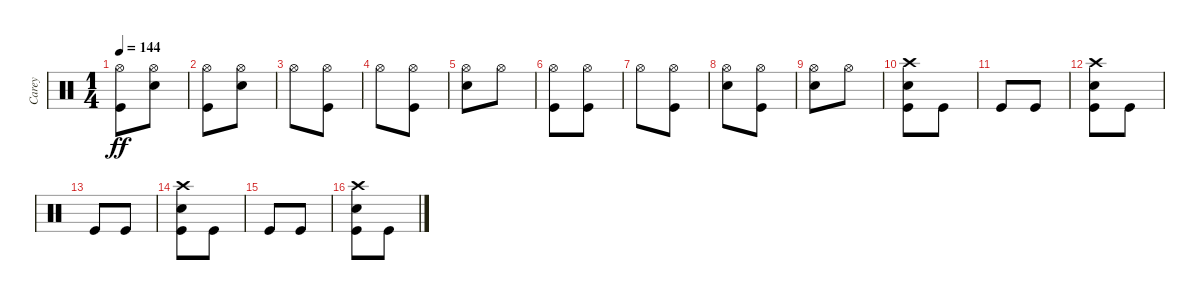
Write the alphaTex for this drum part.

\track ("Carey" "Carey") {instrument percussion}
\staff {score}
\articulation defaults
\ts (1 4)
\tempo 144
\clef neutral
\ks c
("Kick (hit)" "Hi-Hat (open)").8{dy ff} ("Snare (hit) 2" "Hi-Hat (open)").8 |
("Kick (hit)" "Hi-Hat (open)").8 ("Snare (hit) 2" "Hi-Hat (open)").8 |
"Hi-Hat (open)".8 ("Kick (hit)" "Hi-Hat (open)").8 |
"Hi-Hat (open)".8 ("Kick (hit)" "Hi-Hat (open)").8 |
("Snare (hit) 2" "Hi-Hat (open)").8 "Hi-Hat (open)".8 |
("Kick (hit)" "Hi-Hat (open)").8 ("Kick (hit)" "Hi-Hat (open)").8 |
"Hi-Hat (open)".8 ("Kick (hit)" "Hi-Hat (open)").8 |
("Snare (hit) 2" "Hi-Hat (open)").8 ("Kick (hit)" "Hi-Hat (open)").8 |
("Snare (hit) 2" "Hi-Hat (open)").8 "Hi-Hat (open)".8 |
("Kick (hit)" "Snare (hit) 2" "Crash high (hit)").8 "Kick (hit)".8 |
"Kick (hit)".8 "Kick (hit)".8 |
("Kick (hit)" "Snare (hit) 2" "Crash high (hit)").8 "Kick (hit)".8 |
"Kick (hit)".8 "Kick (hit)".8 |
("Kick (hit)" "Snare (hit) 2" "Crash high (hit)").8 "Kick (hit)".8 |
"Kick (hit)".8 "Kick (hit)".8 |
("Kick (hit)" "Snare (hit) 2" "Crash high (hit)").8 "Kick (hit)".8
